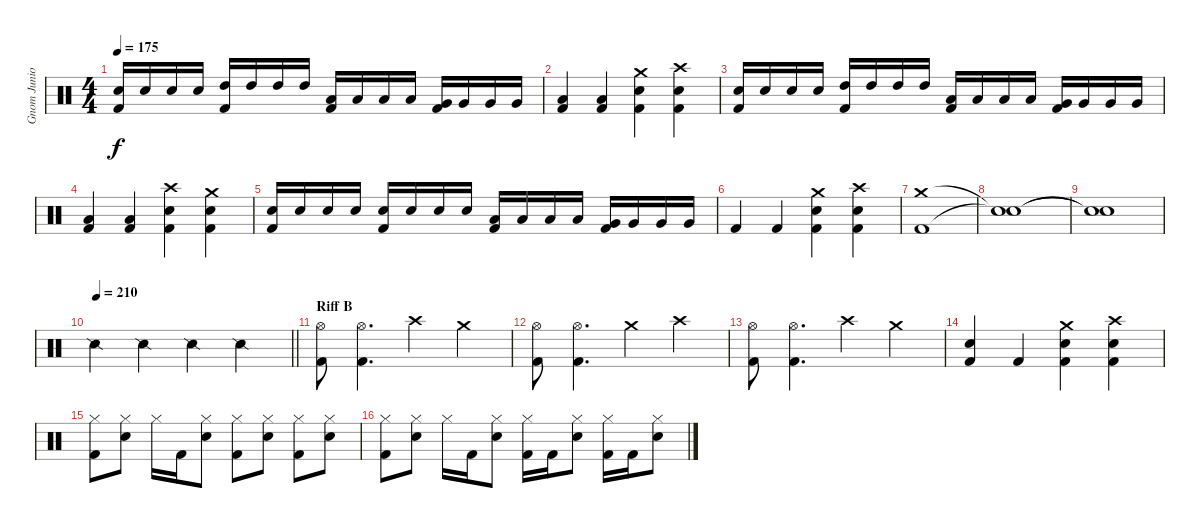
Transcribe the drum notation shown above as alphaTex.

\track ("Gnom Junior" "Gnom Junio") {instrument percussion}
\staff {score}
\articulation defaults
\ts (4 4)
\tempo 175
\clef neutral
\ks c
("Electric Snare (hit)" "Kick (hit) 2").16{dy f} "Electric Snare (hit)".16 "Electric Snare (hit)".16 "Electric Snare (hit)".16 ("High Tom (hit)" "Kick (hit) 2").16 "High Tom (hit)".16 "High Tom (hit)".16 "High Tom (hit)".16 ("Low Tom (hit)" "Kick (hit) 2").16 "Low Tom (hit)".16 "Low Tom (hit)".16 "Low Tom (hit)".16 ("Very Low Tom (hit)" "Kick (hit) 2").16 "Very Low Tom (hit)".16 "Very Low Tom (hit)".16 "Very Low Tom (hit)".16 |
("Low Tom (hit)" "Kick (hit) 2").4 ("Low Tom (hit)" "Kick (hit) 2").4 ("Crash medium (hit)" "Electric Snare (hit)" "Kick (hit) 2").4 ("Crash high (hit)" "Electric Snare (hit)" "Kick (hit) 2").4 |
("Electric Snare (hit)" "Kick (hit) 2").16 "Electric Snare (hit)".16 "Electric Snare (hit)".16 "Electric Snare (hit)".16 ("High Tom (hit)" "Kick (hit) 2").16 "High Tom (hit)".16 "High Tom (hit)".16 "High Tom (hit)".16 ("Low Tom (hit)" "Kick (hit) 2").16 "Low Tom (hit)".16 "Low Tom (hit)".16 "Low Tom (hit)".16 ("Very Low Tom (hit)" "Kick (hit) 2").16 "Very Low Tom (hit)".16 "Very Low Tom (hit)".16 "Very Low Tom (hit)".16 |
("Low Tom (hit)" "Kick (hit) 2").4 ("Low Tom (hit)" "Kick (hit) 2").4 ("Crash high (hit)" "Electric Snare (hit)" "Kick (hit) 2").4 ("Crash medium (hit)" "Electric Snare (hit)" "Kick (hit) 2").4 |
("Electric Snare (hit)" "Kick (hit) 2").16 "Electric Snare (hit)".16 "Electric Snare (hit)".16 "Electric Snare (hit)".16 ("Electric Snare (hit)" "Kick (hit) 2").16 "Electric Snare (hit)".16 "Electric Snare (hit)".16 "Electric Snare (hit)".16 ("Low Tom (hit)" "Kick (hit) 2").16 "Low Tom (hit)".16 "Low Tom (hit)".16 "Low Tom (hit)".16 ("Very Low Tom (hit)" "Kick (hit) 2").16 "Very Low Tom (hit)".16 "Very Low Tom (hit)".16 "Very Low Tom (hit)".16 |
"Kick (hit) 2".4 "Kick (hit) 2".4 ("Crash medium (hit)" "Electric Snare (hit)" "Kick (hit) 2").4 ("Crash high (hit)" "Electric Snare (hit)" "Kick (hit) 2").4 |
("Crash medium (hit)" "Kick (hit) 2").1 |
("Snare (hit)"{t} "Snare (hit)"{t}).1 |
("Snare (hit)"{t} "Snare (hit)"{t}).1 |
\tempo 210
\barLineRight lightlight "Snare (side stick) 2".4 "Snare (side stick) 2".4 "Snare (side stick) 2".4 "Snare (side stick) 2".4
|
\section ("" "Riff B")
("Hi-Hat (open)" "Kick (hit) 2").8 ("Hi-Hat (open)" "Kick (hit) 2").4{d} "Crash high (hit)".4 "Crash medium (hit)".4 |
("Hi-Hat (open)" "Kick (hit) 2").8 ("Hi-Hat (open)" "Kick (hit) 2").4{d} "Crash medium (hit)".4 "Crash high (hit)".4 |
("Hi-Hat (open)" "Kick (hit) 2").8 ("Hi-Hat (open)" "Kick (hit) 2").4{d} "Crash high (hit)".4 "Crash medium (hit)".4 |
("Electric Snare (hit)" "Kick (hit) 2").4 "Kick (hit) 2".4 ("Crash medium (hit)" "Electric Snare (hit)" "Kick (hit) 2").4 ("Crash high (hit)" "Electric Snare (hit)" "Kick (hit) 2").4 |
("Hi-Hat (closed)" "Kick (hit) 2").8 ("Hi-Hat (closed)" "Electric Snare (hit)").8 "Hi-Hat (closed)".16 "Kick (hit) 2".16 ("Hi-Hat (closed)" "Electric Snare (hit)").8 ("Hi-Hat (closed)" "Kick (hit) 2").8 ("Hi-Hat (closed)" "Electric Snare (hit)").8 ("Hi-Hat (closed)" "Kick (hit) 2").8 ("Hi-Hat (closed)" "Electric Snare (hit)").8 |
("Hi-Hat (closed)" "Kick (hit) 2").8 ("Hi-Hat (closed)" "Electric Snare (hit)").8 "Hi-Hat (closed)".16 "Kick (hit) 2".16 ("Hi-Hat (closed)" "Electric Snare (hit)").8 ("Hi-Hat (closed)" "Kick (hit) 2").16 "Kick (hit) 2".16 ("Hi-Hat (closed)" "Electric Snare (hit)").8 ("Hi-Hat (closed)" "Kick (hit) 2").16 "Kick (hit) 2".16 ("Hi-Hat (closed)" "Electric Snare (hit)").8
